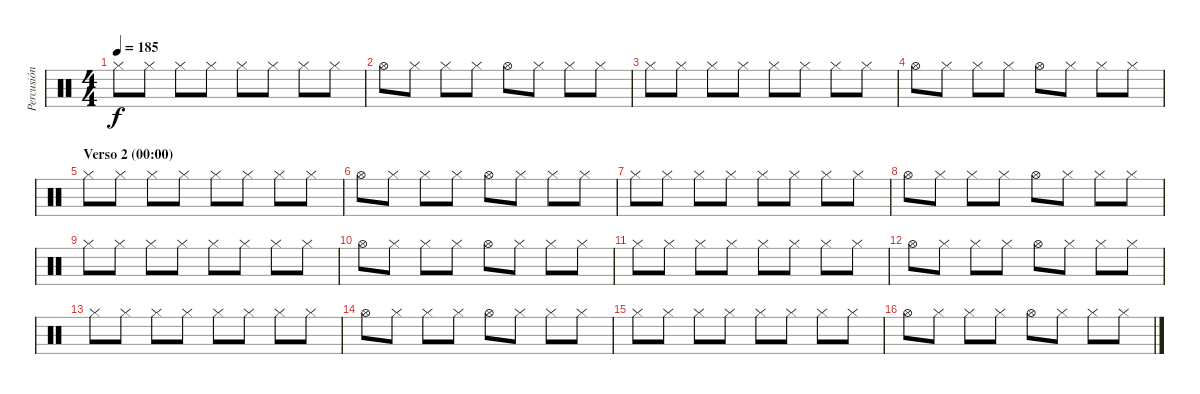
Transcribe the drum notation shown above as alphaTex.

\track ("Percusión" "Percusión") {instrument percussion}
\staff {score}
\articulation defaults
\ts (4 4)
\tempo 185
\clef neutral
\ks c "Hi-Hat (closed)".8{dy f} "Hi-Hat (closed)".8 "Hi-Hat (closed)".8 "Hi-Hat (closed)".8 "Hi-Hat (closed)".8 "Hi-Hat (closed)".8 "Hi-Hat (closed)".8 "Hi-Hat (closed)".8
|
"Hi-Hat (open)".8 "Hi-Hat (closed)".8 "Hi-Hat (closed)".8 "Hi-Hat (closed)".8 "Hi-Hat (open)".8 "Hi-Hat (closed)".8 "Hi-Hat (closed)".8 "Hi-Hat (closed)".8 |
"Hi-Hat (closed)".8 "Hi-Hat (closed)".8 "Hi-Hat (closed)".8 "Hi-Hat (closed)".8 "Hi-Hat (closed)".8 "Hi-Hat (closed)".8 "Hi-Hat (closed)".8 "Hi-Hat (closed)".8 |
"Hi-Hat (open)".8 "Hi-Hat (closed)".8 "Hi-Hat (closed)".8 "Hi-Hat (closed)".8 "Hi-Hat (open)".8 "Hi-Hat (closed)".8 "Hi-Hat (closed)".8 "Hi-Hat (closed)".8 |
\section ("" "Verso 2 (00:00)")
"Hi-Hat (closed)".8 "Hi-Hat (closed)".8 "Hi-Hat (closed)".8 "Hi-Hat (closed)".8 "Hi-Hat (closed)".8 "Hi-Hat (closed)".8 "Hi-Hat (closed)".8 "Hi-Hat (closed)".8 |
"Hi-Hat (open)".8 "Hi-Hat (closed)".8 "Hi-Hat (closed)".8 "Hi-Hat (closed)".8 "Hi-Hat (open)".8 "Hi-Hat (closed)".8 "Hi-Hat (closed)".8 "Hi-Hat (closed)".8 |
"Hi-Hat (closed)".8 "Hi-Hat (closed)".8 "Hi-Hat (closed)".8 "Hi-Hat (closed)".8 "Hi-Hat (closed)".8 "Hi-Hat (closed)".8 "Hi-Hat (closed)".8 "Hi-Hat (closed)".8 |
"Hi-Hat (open)".8 "Hi-Hat (closed)".8 "Hi-Hat (closed)".8 "Hi-Hat (closed)".8 "Hi-Hat (open)".8 "Hi-Hat (closed)".8 "Hi-Hat (closed)".8 "Hi-Hat (closed)".8 |
"Hi-Hat (closed)".8 "Hi-Hat (closed)".8 "Hi-Hat (closed)".8 "Hi-Hat (closed)".8 "Hi-Hat (closed)".8 "Hi-Hat (closed)".8 "Hi-Hat (closed)".8 "Hi-Hat (closed)".8 |
"Hi-Hat (open)".8 "Hi-Hat (closed)".8 "Hi-Hat (closed)".8 "Hi-Hat (closed)".8 "Hi-Hat (open)".8 "Hi-Hat (closed)".8 "Hi-Hat (closed)".8 "Hi-Hat (closed)".8 |
"Hi-Hat (closed)".8 "Hi-Hat (closed)".8 "Hi-Hat (closed)".8 "Hi-Hat (closed)".8 "Hi-Hat (closed)".8 "Hi-Hat (closed)".8 "Hi-Hat (closed)".8 "Hi-Hat (closed)".8 |
"Hi-Hat (open)".8 "Hi-Hat (closed)".8 "Hi-Hat (closed)".8 "Hi-Hat (closed)".8 "Hi-Hat (open)".8 "Hi-Hat (closed)".8 "Hi-Hat (closed)".8 "Hi-Hat (closed)".8 |
"Hi-Hat (closed)".8 "Hi-Hat (closed)".8 "Hi-Hat (closed)".8 "Hi-Hat (closed)".8 "Hi-Hat (closed)".8 "Hi-Hat (closed)".8 "Hi-Hat (closed)".8 "Hi-Hat (closed)".8 |
"Hi-Hat (open)".8 "Hi-Hat (closed)".8 "Hi-Hat (closed)".8 "Hi-Hat (closed)".8 "Hi-Hat (open)".8 "Hi-Hat (closed)".8 "Hi-Hat (closed)".8 "Hi-Hat (closed)".8 |
"Hi-Hat (closed)".8 "Hi-Hat (closed)".8 "Hi-Hat (closed)".8 "Hi-Hat (closed)".8 "Hi-Hat (closed)".8 "Hi-Hat (closed)".8 "Hi-Hat (closed)".8 "Hi-Hat (closed)".8 |
"Hi-Hat (open)".8 "Hi-Hat (closed)".8 "Hi-Hat (closed)".8 "Hi-Hat (closed)".8 "Hi-Hat (open)".8 "Hi-Hat (closed)".8 "Hi-Hat (closed)".8 "Hi-Hat (closed)".8
